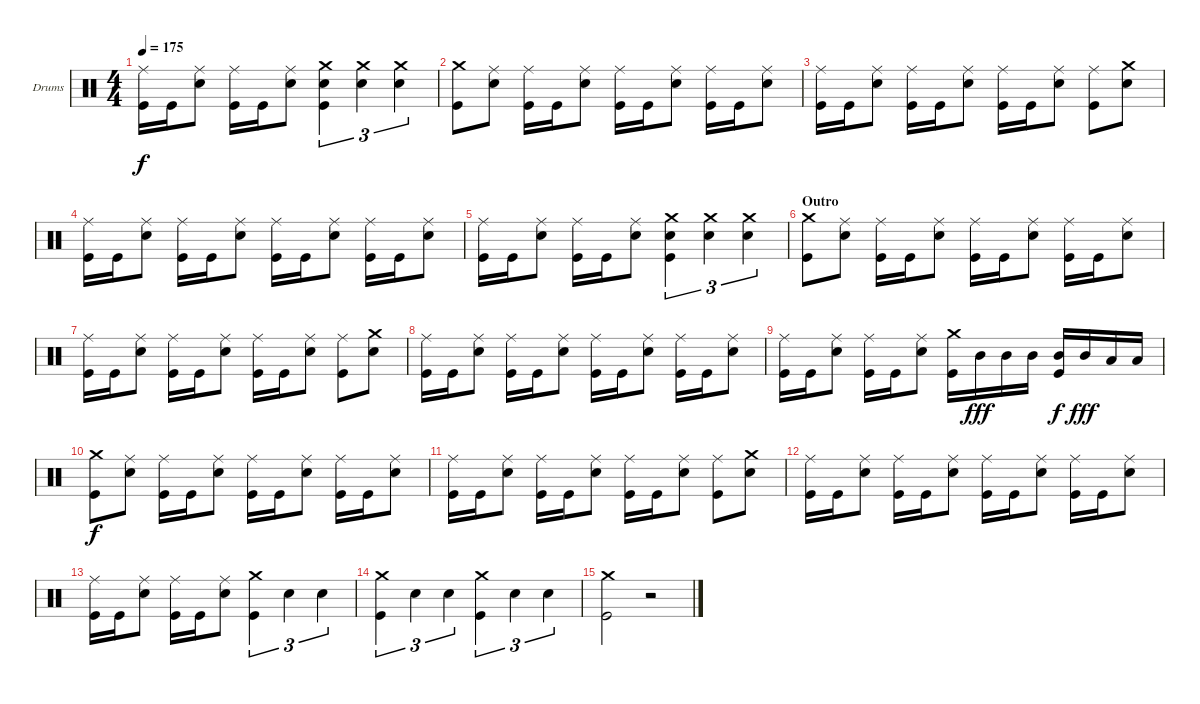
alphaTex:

\bracketExtendMode groupsimilarinstruments
\firstSystemTrackNameOrientation horizontal
\otherSystemsTrackNameOrientation horizontal
\track ("Drums" "Drums") {instrument percussion}
\staff {score}
\articulation defaults
\ts (4 4)
\tempo 175
\clef neutral
\ks c
("Kick (hit)" "Ride (middle)").16{dy f} "Kick (hit)".16 ("Snare (hit) 2" "Ride (middle)").8 ("Kick (hit)" "Ride (middle)").16 "Kick (hit)".16 ("Snare (hit) 2" "Ride (middle)").8 ("Snare (hit) 2" "Crash medium (hit)" "Kick (hit)").4{tu (3 2)} ("Snare (hit) 2" "Crash medium (hit)").4{tu (3 2)} ("Snare (hit) 2" "Crash medium (hit)").4{tu (3 2)} |
("Kick (hit)" "Crash medium (hit)").8 ("Snare (hit) 2" "Ride (middle)").8 ("Kick (hit)" "Ride (middle)").16 "Kick (hit)".16 ("Snare (hit) 2" "Ride (middle)").8 ("Kick (hit)" "Ride (middle)").16 "Kick (hit)".16 ("Snare (hit) 2" "Ride (middle)").8 ("Kick (hit)" "Ride (middle)").16 "Kick (hit)".16 ("Snare (hit) 2" "Ride (middle)").8 |
("Kick (hit)" "Ride (middle)").16 "Kick (hit)".16 ("Snare (hit) 2" "Ride (middle)").8 ("Kick (hit)" "Ride (middle)").16 "Kick (hit)".16 ("Snare (hit) 2" "Ride (middle)").8 ("Kick (hit)" "Ride (middle)").16 "Kick (hit)".16 ("Snare (hit) 2" "Ride (middle)").8 ("Kick (hit)" "Ride (middle)").8 ("Snare (hit) 2" "Crash medium (hit)").8 |
("Kick (hit)" "Ride (middle)").16 "Kick (hit)".16 ("Snare (hit) 2" "Ride (middle)").8 ("Kick (hit)" "Ride (middle)").16 "Kick (hit)".16 ("Snare (hit) 2" "Ride (middle)").8 ("Kick (hit)" "Ride (middle)").16 "Kick (hit)".16 ("Snare (hit) 2" "Ride (middle)").8 ("Kick (hit)" "Ride (middle)").16 "Kick (hit)".16 ("Snare (hit) 2" "Ride (middle)").8 |
("Kick (hit)" "Ride (middle)").16 "Kick (hit)".16 ("Snare (hit) 2" "Ride (middle)").8 ("Kick (hit)" "Ride (middle)").16 "Kick (hit)".16 ("Snare (hit) 2" "Ride (middle)").8 ("Snare (hit) 2" "Crash medium (hit)" "Kick (hit)").4{tu (3 2)} ("Snare (hit) 2" "Crash medium (hit)").4{tu (3 2)} ("Snare (hit) 2" "Crash medium (hit)").4{tu (3 2)} |
\section ("" "Outro")
("Kick (hit)" "Crash medium (hit)").8 ("Snare (hit) 2" "Ride (middle)").8 ("Kick (hit)" "Ride (middle)").16 "Kick (hit)".16 ("Snare (hit) 2" "Ride (middle)").8 ("Kick (hit)" "Ride (middle)").16 "Kick (hit)".16 ("Snare (hit) 2" "Ride (middle)").8 ("Kick (hit)" "Ride (middle)").16 "Kick (hit)".16 ("Snare (hit) 2" "Ride (middle)").8 |
("Kick (hit)" "Ride (middle)").16 "Kick (hit)".16 ("Snare (hit) 2" "Ride (middle)").8 ("Kick (hit)" "Ride (middle)").16 "Kick (hit)".16 ("Snare (hit) 2" "Ride (middle)").8 ("Kick (hit)" "Ride (middle)").16 "Kick (hit)".16 ("Snare (hit) 2" "Ride (middle)").8 ("Kick (hit)" "Ride (middle)").8 ("Snare (hit) 2" "Crash medium (hit)").8 |
("Kick (hit)" "Ride (middle)").16 "Kick (hit)".16 ("Snare (hit) 2" "Ride (middle)").8 ("Kick (hit)" "Ride (middle)").16 "Kick (hit)".16 ("Snare (hit) 2" "Ride (middle)").8 ("Kick (hit)" "Ride (middle)").16 "Kick (hit)".16 ("Snare (hit) 2" "Ride (middle)").8 ("Kick (hit)" "Ride (middle)").16 "Kick (hit)".16 ("Snare (hit) 2" "Ride (middle)").8 |
("Kick (hit)" "Ride (middle)").16 "Kick (hit)".16 ("Snare (hit) 2" "Ride (middle)").8 ("Kick (hit)" "Ride (middle)").16 "Kick (hit)".16 ("Snare (hit) 2" "Ride (middle)").8 ("Kick (hit)" "Crash medium (hit)").16 "Mid Tom (hit)".16{dy fff} "Mid Tom (hit)".16 "Mid Tom (hit)".16 ("Mid Tom (hit)" "Kick (hit)").16{dy f} "Mid Tom (hit)".16{dy fff} "Low Tom (hit)".16 "Low Tom (hit)".16 |
("Kick (hit)" "Crash medium (hit)").8{dy f} ("Snare (hit) 2" "Ride (middle)").8 ("Kick (hit)" "Ride (middle)").16 "Kick (hit)".16 ("Snare (hit) 2" "Ride (middle)").8 ("Kick (hit)" "Ride (middle)").16 "Kick (hit)".16 ("Snare (hit) 2" "Ride (middle)").8 ("Kick (hit)" "Ride (middle)").16 "Kick (hit)".16 ("Snare (hit) 2" "Ride (middle)").8 |
("Kick (hit)" "Ride (middle)").16 "Kick (hit)".16 ("Snare (hit) 2" "Ride (middle)").8 ("Kick (hit)" "Ride (middle)").16 "Kick (hit)".16 ("Snare (hit) 2" "Ride (middle)").8 ("Kick (hit)" "Ride (middle)").16 "Kick (hit)".16 ("Snare (hit) 2" "Ride (middle)").8 ("Kick (hit)" "Ride (middle)").8 ("Snare (hit) 2" "Crash medium (hit)").8 |
("Kick (hit)" "Ride (middle)").16 "Kick (hit)".16 ("Snare (hit) 2" "Ride (middle)").8 ("Kick (hit)" "Ride (middle)").16 "Kick (hit)".16 ("Snare (hit) 2" "Ride (middle)").8 ("Kick (hit)" "Ride (middle)").16 "Kick (hit)".16 ("Snare (hit) 2" "Ride (middle)").8 ("Kick (hit)" "Ride (middle)").16 "Kick (hit)".16 ("Snare (hit) 2" "Ride (middle)").8 |
("Kick (hit)" "Ride (middle)").16 "Kick (hit)".16 ("Snare (hit) 2" "Ride (middle)").8 ("Kick (hit)" "Ride (middle)").16 "Kick (hit)".16 ("Snare (hit) 2" "Ride (middle)").8 ("Crash medium (hit)" "Kick (hit)").4{tu (3 2)} "Snare (hit) 2".4{tu (3 2)} "Snare (hit) 2".4{tu (3 2)} |
("Kick (hit)" "Crash medium (hit)").4{tu (3 2)} "Snare (hit) 2".4{tu (3 2)} "Snare (hit) 2".4{tu (3 2)} ("Kick (hit)" "Crash medium (hit)").4{tu (3 2)} "Snare (hit) 2".4{tu (3 2)} "Snare (hit) 2".4{tu (3 2)} |
("Kick (hit)" "Crash medium (hit)").2 r.2
